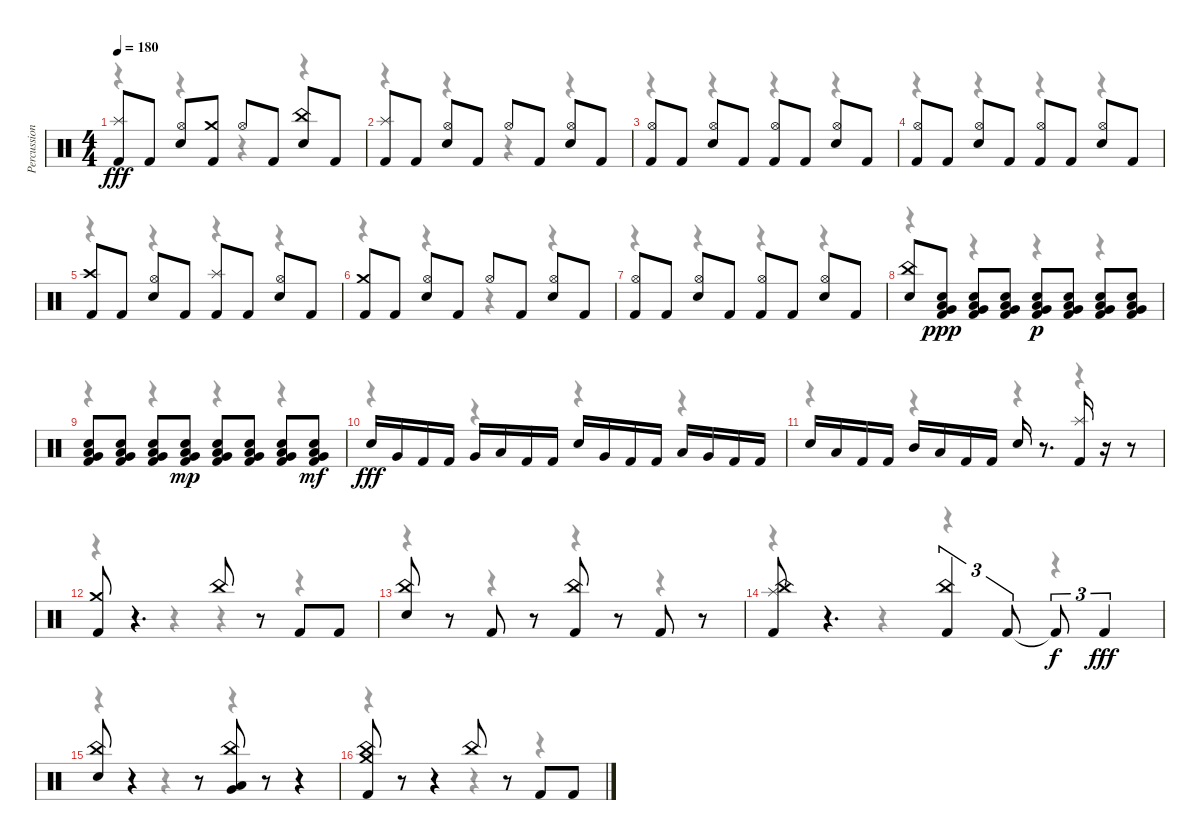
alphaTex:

\track ("Percussion" "Percussion") {instrument percussion}
\staff {score}
\articulation defaults
\voice
\ts (4 4)
\tempo 180
\clef neutral
\ks c
("Kick (hit) 2" "Splash (hit)").8{dy fff} "Kick (hit) 2".8 ("Hi-Hat (open)" "Snare (hit) 2").8 ("Kick (hit) 2" "Crash medium (hit)").8 "Hi-Hat (open)".8 "Kick (hit) 2".8 ("Snare (hit) 2" "China (hit)").8 "Kick (hit) 2".8 |
("Kick (hit) 2" "Splash (hit)").8 "Kick (hit) 2".8 ("Hi-Hat (open)" "Snare (hit) 2").8 "Kick (hit) 2".8 "Hi-Hat (open)".8 "Kick (hit) 2".8 ("Hi-Hat (open)" "Snare (hit) 2").8 "Kick (hit) 2".8 |
("Hi-Hat (open)" "Kick (hit) 2").8 "Kick (hit) 2".8 ("Hi-Hat (open)" "Snare (hit) 2").8 "Kick (hit) 2".8 ("Hi-Hat (open)" "Kick (hit) 2").8 "Kick (hit) 2".8 ("Hi-Hat (open)" "Snare (hit) 2").8 "Kick (hit) 2".8 |
("Hi-Hat (open)" "Kick (hit) 2").8 "Kick (hit) 2".8 ("Hi-Hat (open)" "Snare (hit) 2").8 "Kick (hit) 2".8 ("Hi-Hat (open)" "Kick (hit) 2").8 "Kick (hit) 2".8 ("Hi-Hat (open)" "Snare (hit) 2").8 "Kick (hit) 2".8 |
("Kick (hit) 2" "Crash high (hit)").8 "Kick (hit) 2".8 ("Hi-Hat (open)" "Snare (hit) 2").8 "Kick (hit) 2".8 ("Kick (hit) 2" "Splash (hit)").8 "Kick (hit) 2".8 ("Hi-Hat (open)" "Snare (hit) 2").8 "Kick (hit) 2".8 |
("Kick (hit) 2" "Crash medium (hit)").8 "Kick (hit) 2".8 ("Hi-Hat (open)" "Snare (hit) 2").8 "Kick (hit) 2".8 "Hi-Hat (open)".8 "Kick (hit) 2".8 ("Hi-Hat (open)" "Snare (hit) 2").8 "Kick (hit) 2".8 |
("Hi-Hat (open)" "Kick (hit) 2").8 "Kick (hit) 2".8 ("Hi-Hat (open)" "Snare (hit) 2").8 "Kick (hit) 2".8 ("Hi-Hat (open)" "Kick (hit) 2").8 "Kick (hit) 2".8 ("Hi-Hat (open)" "Snare (hit) 2").8 "Kick (hit) 2".8 |
("Snare (hit) 2" "China (hit)").8 ("Kick (hit) 2" "Snare (hit) 2" "Low Floor Tom (hit)" "Very Low Tom (hit)").8{dy ppp} ("Kick (hit) 2" "Snare (hit) 2" "Low Floor Tom (hit)" "Very Low Tom (hit)").8 ("Kick (hit) 2" "Snare (hit) 2" "Low Floor Tom (hit)" "Very Low Tom (hit)").8 ("Kick (hit) 2" "Snare (hit) 2" "Low Floor Tom (hit)" "Very Low Tom (hit)").8{dy p} ("Kick (hit) 2" "Snare (hit) 2" "Low Floor Tom (hit)" "Very Low Tom (hit)").8 ("Kick (hit) 2" "Snare (hit) 2" "Low Floor Tom (hit)" "Very Low Tom (hit)").8 ("Kick (hit) 2" "Snare (hit) 2" "Low Floor Tom (hit)" "Very Low Tom (hit)").8 |
("Kick (hit) 2" "Snare (hit) 2" "Low Floor Tom (hit)" "Very Low Tom (hit)").8 ("Kick (hit) 2" "Snare (hit) 2" "Low Floor Tom (hit)" "Very Low Tom (hit)").8 ("Kick (hit) 2" "Snare (hit) 2" "Low Floor Tom (hit)" "Very Low Tom (hit)").8 ("Kick (hit) 2" "Snare (hit) 2" "Low Floor Tom (hit)" "Very Low Tom (hit)").8{dy mp} ("Kick (hit) 2" "Snare (hit) 2" "Low Floor Tom (hit)" "Very Low Tom (hit)").8 ("Kick (hit) 2" "Snare (hit) 2" "Low Floor Tom (hit)" "Very Low Tom (hit)").8 ("Kick (hit) 2" "Snare (hit) 2" "Low Floor Tom (hit)" "Very Low Tom (hit)").8 ("Kick (hit) 2" "Snare (hit) 2" "Low Floor Tom (hit)" "Very Low Tom (hit)").8{dy mf} |
"Snare (hit) 2".16{dy fff} "Very Low Tom (hit)".16 "Kick (hit) 2".16 "Kick (hit) 2".16 "Very Low Tom (hit)".16 "Low Floor Tom (hit)".16 "Kick (hit) 2".16 "Kick (hit) 2".16 "Snare (hit) 2".16 "Very Low Tom (hit)".16 "Kick (hit) 2".16 "Kick (hit) 2".16 "Low Tom (hit)".16 "Very Low Tom (hit)".16 "Kick (hit) 2".16 "Kick (hit) 2".16 |
"Snare (hit) 2".16 "Low Tom (hit)".16 "Kick (hit) 2".16 "Kick (hit) 2".16 "Mid Tom (hit)".16 "Low Tom (hit)".16 "Kick (hit) 2".16 "Kick (hit) 2".16 "Snare (hit) 2".16 r.8{d} ("Kick (hit) 2" "Splash (hit)").16 r.16 r.8 |
("Crash medium (hit)" "Kick (hit) 2").8 r.4{d} "China (hit)".8 r.8 "Kick (hit) 2".8 "Kick (hit) 2".8 |
("Snare (hit) 2" "China (hit)").8 r.8 "Kick (hit) 2".8 r.8 ("Kick (hit) 2" "China (hit)").8 r.8 "Kick (hit) 2".8 r.8 |
("Kick (hit) 2" "China (hit)" "Splash (hit)").8 r.4{d} ("China (hit)" "Kick (hit) 2").4{tu (3 2)} "Kick (hit) 2".8{tu (3 2)} "Kick (hit) 2"{t}.8{tu (3 2) dy f} "Kick (hit) 2".4{tu (3 2) dy fff} |
("Snare (hit) 2" "China (hit)").8 r.4 r.8 ("Low Floor Tom (hit)" "Very Low Tom (hit)" "China (hit)").8 r.8 r.4 |
("China (hit)" "Crash medium (hit)" "Kick (hit) 2").8 r.8 r.4 "China (hit)".8 r.8 "Kick (hit) 2".8 "Kick (hit) 2".8
\voice
\clef neutral
\ottava regular
\simile none
\ks c
r.4{dy f} r.4 r.4 r.4 |
r.4 r.4 r.4 r.4 |
r.4 r.4 r.4 r.4 |
r.4 r.4 r.4 r.4 |
r.4 r.4 r.4 r.4 |
r.4 r.4 r.4 r.4 |
r.4 r.4 r.4 r.4 |
r.4 r.4 r.4 r.4 |
r.4 r.4 r.4 r.4 |
r.4 r.4 r.4 r.4 |
r.4 r.4 r.4 r.4 |
r.4 r.4 r.4 r.4 |
r.4 r.4 r.4 r.4 |
r.4 r.4 r.4 r.4 |
r.4 r.4 r.4 r.4 |
r.4 r.4 r.4 r.4
